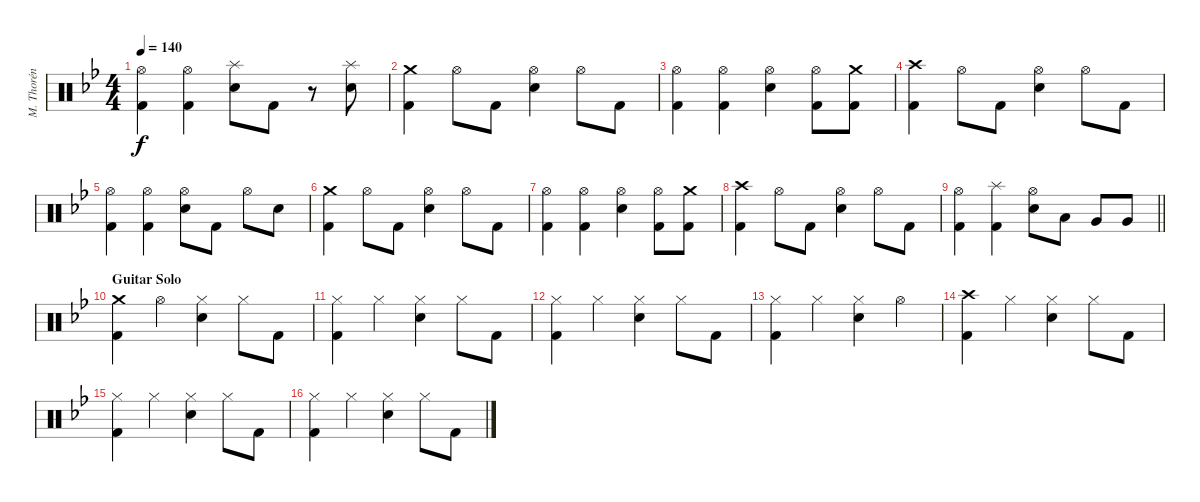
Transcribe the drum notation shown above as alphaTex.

\track ("M. Thorén (Drums)" "M. Thorén ") {instrument percussion}
\staff {score}
\articulation defaults
\ts (4 4)
\tempo 140
\clef neutral
\ks gminor
("Hi-Hat (open)" "Kick (hit) 2").4{dy f} ("Hi-Hat (open)" "Kick (hit) 2").4 ("Splash (hit)" "Electric Snare (hit)").8 "Kick (hit) 2".8 r.8 ("Splash (hit)" "Electric Snare (hit)").8 |
("Crash medium (hit)" "Kick (hit) 2").4 "Hi-Hat (open)".8 "Kick (hit) 2".8 ("Hi-Hat (open)" "Electric Snare (hit)").4 "Hi-Hat (open)".8 "Kick (hit) 2".8 |
("Hi-Hat (open)" "Kick (hit) 2").4 ("Hi-Hat (open)" "Kick (hit) 2").4 ("Hi-Hat (open)" "Electric Snare (hit)").4 ("Hi-Hat (open)" "Kick (hit) 2").8 ("Crash medium (hit)" "Kick (hit) 2").8 |
("Crash high (hit)" "Kick (hit) 2").4 "Hi-Hat (open)".8 "Kick (hit) 2".8 ("Hi-Hat (open)" "Electric Snare (hit)").4 "Hi-Hat (open)".8 "Kick (hit) 2".8 |
("Hi-Hat (open)" "Kick (hit) 2").4 ("Hi-Hat (open)" "Kick (hit) 2").4 ("Hi-Hat (open)" "Electric Snare (hit)").8 "Kick (hit) 2".8 "Hi-Hat (open)".8 "Electric Snare (hit)".8 |
("Crash medium (hit)" "Kick (hit) 2").4 "Hi-Hat (open)".8 "Kick (hit) 2".8 ("Hi-Hat (open)" "Electric Snare (hit)").4 "Hi-Hat (open)".8 "Kick (hit) 2".8 |
("Hi-Hat (open)" "Kick (hit) 2").4 ("Hi-Hat (open)" "Kick (hit) 2").4 ("Hi-Hat (open)" "Electric Snare (hit)").4 ("Hi-Hat (open)" "Kick (hit) 2").8 ("Crash medium (hit)" "Kick (hit) 2").8 |
("Crash high (hit)" "Kick (hit) 2").4 "Hi-Hat (open)".8 "Kick (hit) 2".8 ("Hi-Hat (open)" "Electric Snare (hit)").4 "Hi-Hat (open)".8 "Kick (hit) 2".8 |
\barLineRight lightlight
("Hi-Hat (open)" "Kick (hit) 2").4 ("Splash (hit)" "Kick (hit) 2").4 ("Hi-Hat (open)" "Electric Snare (hit)").8 "Low Tom (hit)".8 "Very Low Tom (hit)".8 "Very Low Tom (hit)".8 |
\section ("" "Guitar Solo")
("Crash medium (hit)" "Kick (hit) 2").4 "Hi-Hat (open)".4 ("Hi-Hat (closed)" "Electric Snare (hit)").4 "Hi-Hat (closed)".8 "Kick (hit) 2".8 |
("Hi-Hat (closed)" "Kick (hit) 2").4 "Hi-Hat (closed)".4 ("Hi-Hat (closed)" "Electric Snare (hit)").4 "Hi-Hat (closed)".8 "Kick (hit) 2".8 |
("Hi-Hat (closed)" "Kick (hit) 2").4 "Hi-Hat (closed)".4 ("Hi-Hat (closed)" "Electric Snare (hit)").4 "Hi-Hat (closed)".8 "Kick (hit) 2".8 |
("Hi-Hat (closed)" "Kick (hit) 2").4 "Hi-Hat (closed)".4 ("Hi-Hat (closed)" "Electric Snare (hit)").4 "Hi-Hat (open)".4 |
("Crash high (hit)" "Kick (hit) 2").4 "Hi-Hat (closed)".4 ("Hi-Hat (closed)" "Electric Snare (hit)").4 "Hi-Hat (closed)".8 "Kick (hit) 2".8 |
("Hi-Hat (closed)" "Kick (hit) 2").4 "Hi-Hat (closed)".4 ("Hi-Hat (closed)" "Electric Snare (hit)").4 "Hi-Hat (closed)".8 "Kick (hit) 2".8 |
("Hi-Hat (closed)" "Kick (hit) 2").4 "Hi-Hat (closed)".4 ("Hi-Hat (closed)" "Electric Snare (hit)").4 "Hi-Hat (closed)".8 "Kick (hit) 2".8
